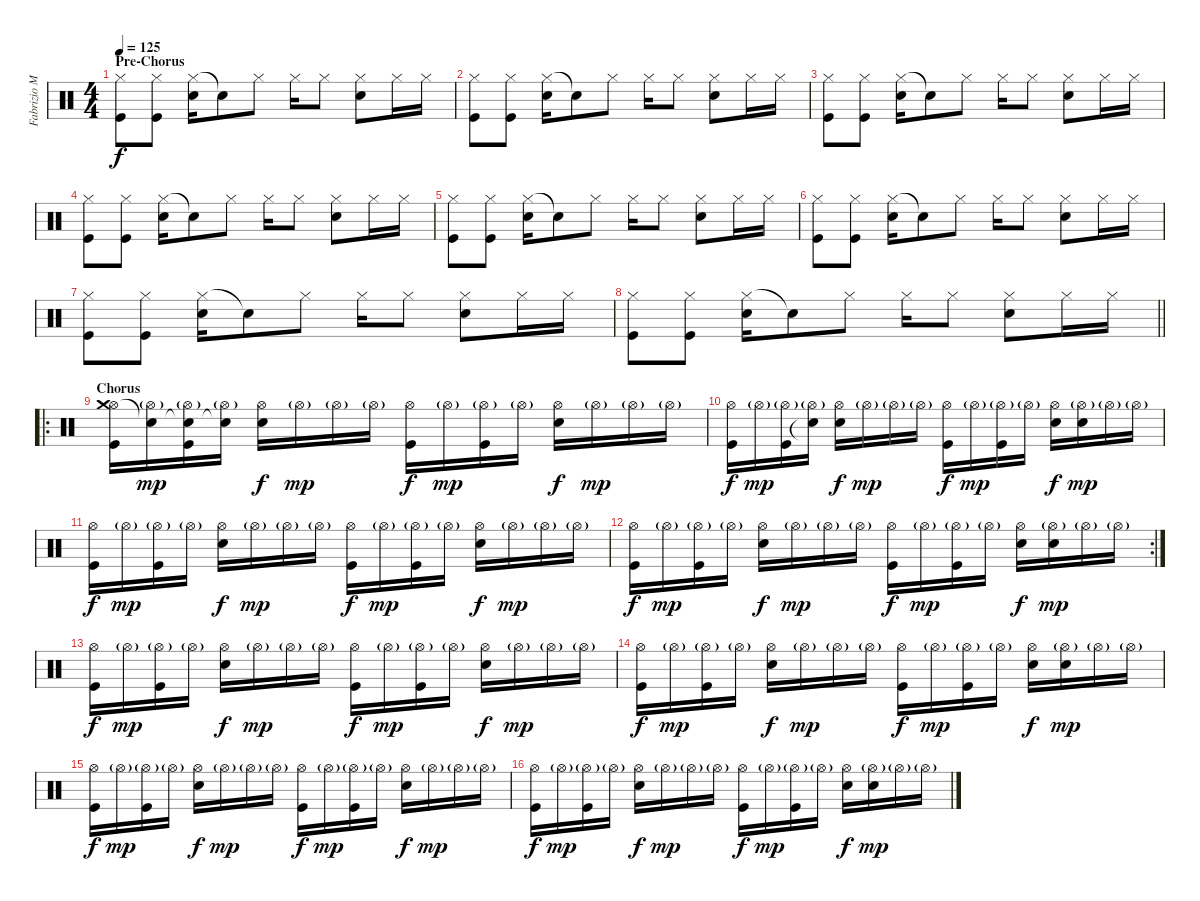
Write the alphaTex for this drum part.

\track ("Fabrizio Moretti" "Fabrizio M") {instrument percussion}
\staff {score}
\articulation defaults
\ts (4 4)
\section ("" "Pre-Chorus")
\tempo 125
\clef neutral
\ks c
("Hi-Hat (closed)" "Kick (hit)").8{dy f} ("Hi-Hat (closed)" "Kick (hit)").8 ("Hi-Hat (closed)" "Electric Snare (hit)").16 "Snare (hit)"{t}.8 "Hi-Hat (closed)".8 "Hi-Hat (closed)".16 "Hi-Hat (closed)".8 ("Hi-Hat (closed)" "Electric Snare (hit)").8 "Hi-Hat (closed)".16 "Hi-Hat (closed)".16 |
("Hi-Hat (closed)" "Kick (hit)").8 ("Hi-Hat (closed)" "Kick (hit)").8 ("Hi-Hat (closed)" "Electric Snare (hit)").16 "Snare (hit)"{t}.8 "Hi-Hat (closed)".8 "Hi-Hat (closed)".16 "Hi-Hat (closed)".8 ("Hi-Hat (closed)" "Electric Snare (hit)").8 "Hi-Hat (closed)".16 "Hi-Hat (closed)".16 |
("Hi-Hat (closed)" "Kick (hit)").8 ("Hi-Hat (closed)" "Kick (hit)").8 ("Hi-Hat (closed)" "Electric Snare (hit)").16 "Snare (hit)"{t}.8 "Hi-Hat (closed)".8 "Hi-Hat (closed)".16 "Hi-Hat (closed)".8 ("Hi-Hat (closed)" "Electric Snare (hit)").8 "Hi-Hat (closed)".16 "Hi-Hat (closed)".16 |
("Hi-Hat (closed)" "Kick (hit)").8 ("Hi-Hat (closed)" "Kick (hit)").8 ("Hi-Hat (closed)" "Electric Snare (hit)").16 "Snare (hit)"{t}.8 "Hi-Hat (closed)".8 "Hi-Hat (closed)".16 "Hi-Hat (closed)".8 ("Hi-Hat (closed)" "Electric Snare (hit)").8 "Hi-Hat (closed)".16 "Hi-Hat (closed)".16 |
("Hi-Hat (closed)" "Kick (hit)").8 ("Hi-Hat (closed)" "Kick (hit)").8 ("Hi-Hat (closed)" "Electric Snare (hit)").16 "Snare (hit)"{t}.8 "Hi-Hat (closed)".8 "Hi-Hat (closed)".16 "Hi-Hat (closed)".8 ("Hi-Hat (closed)" "Electric Snare (hit)").8 "Hi-Hat (closed)".16 "Hi-Hat (closed)".16 |
("Hi-Hat (closed)" "Kick (hit)").8 ("Hi-Hat (closed)" "Kick (hit)").8 ("Hi-Hat (closed)" "Electric Snare (hit)").16 "Snare (hit)"{t}.8 "Hi-Hat (closed)".8 "Hi-Hat (closed)".16 "Hi-Hat (closed)".8 ("Hi-Hat (closed)" "Electric Snare (hit)").8 "Hi-Hat (closed)".16 "Hi-Hat (closed)".16 |
("Hi-Hat (closed)" "Kick (hit)").8 ("Hi-Hat (closed)" "Kick (hit)").8 ("Hi-Hat (closed)" "Electric Snare (hit)").16 "Snare (hit)"{t}.8 "Hi-Hat (closed)".8 "Hi-Hat (closed)".16 "Hi-Hat (closed)".8 ("Hi-Hat (closed)" "Electric Snare (hit)").8 "Hi-Hat (closed)".16 "Hi-Hat (closed)".16 |
\barLineRight lightlight
("Hi-Hat (closed)" "Kick (hit)").8 ("Hi-Hat (closed)" "Kick (hit)").8 ("Hi-Hat (closed)" "Electric Snare (hit)").16 "Snare (hit)"{t}.8 "Hi-Hat (closed)".8 "Hi-Hat (closed)".16 "Hi-Hat (closed)".8 ("Hi-Hat (closed)" "Electric Snare (hit)").8 "Hi-Hat (closed)".16 "Hi-Hat (closed)".16 |
\ro
\section ("" "Chorus")
("Hi-Hat (open)" "Crash medium (hit)" "Kick (hit)").16 ("Hi-Hat (open)"{g} "Snare (hit)"{t}).16{dy mp} ("Hi-Hat (open)"{g} "Snare (hit)"{t} "Kick (hit)").16 ("Hi-Hat (open)"{g} "Snare (hit)"{t}).16 ("Hi-Hat (open)" "Electric Snare (hit)").16{dy f} "Hi-Hat (open)"{g}.16{dy mp} "Hi-Hat (open)"{g}.16 "Hi-Hat (open)"{g}.16 ("Hi-Hat (open)" "Kick (hit)").16{dy f} "Hi-Hat (open)"{g}.16{dy mp} ("Hi-Hat (open)"{g} "Kick (hit)").16 "Hi-Hat (open)"{g}.16 ("Hi-Hat (open)" "Electric Snare (hit)").16{dy f} "Hi-Hat (open)"{g}.16{dy mp} "Hi-Hat (open)"{g}.16 "Hi-Hat (open)"{g}.16 |
("Hi-Hat (open)" "Kick (hit)").16{dy f} "Hi-Hat (open)"{g}.16{dy mp} ("Hi-Hat (open)"{g} "Kick (hit)").16 ("Hi-Hat (open)"{g} "Snare (hit)"{t}).16 ("Hi-Hat (open)" "Electric Snare (hit)").16{dy f} "Hi-Hat (open)"{g}.16{dy mp} "Hi-Hat (open)"{g}.16 "Hi-Hat (open)"{g}.16 ("Hi-Hat (open)" "Kick (hit)").16{dy f} "Hi-Hat (open)"{g}.16{dy mp} ("Hi-Hat (open)"{g} "Kick (hit)").16 "Hi-Hat (open)"{g}.16 ("Hi-Hat (open)" "Electric Snare (hit)").16{dy f} ("Hi-Hat (open)"{g} "Electric Snare (hit)").16{dy mp} "Hi-Hat (open)"{g}.16 "Hi-Hat (open)"{g}.16 |
("Hi-Hat (open)" "Kick (hit)").16{dy f} "Hi-Hat (open)"{g}.16{dy mp} ("Hi-Hat (open)"{g} "Kick (hit)").16 "Hi-Hat (open)"{g}.16 ("Hi-Hat (open)" "Electric Snare (hit)").16{dy f} "Hi-Hat (open)"{g}.16{dy mp} "Hi-Hat (open)"{g}.16 "Hi-Hat (open)"{g}.16 ("Hi-Hat (open)" "Kick (hit)").16{dy f} "Hi-Hat (open)"{g}.16{dy mp} ("Hi-Hat (open)"{g} "Kick (hit)").16 "Hi-Hat (open)"{g}.16 ("Hi-Hat (open)" "Electric Snare (hit)").16{dy f} "Hi-Hat (open)"{g}.16{dy mp} "Hi-Hat (open)"{g}.16 "Hi-Hat (open)"{g}.16 |
\rc 2
("Hi-Hat (open)" "Kick (hit)").16{dy f} "Hi-Hat (open)"{g}.16{dy mp} ("Hi-Hat (open)"{g} "Kick (hit)").16 "Hi-Hat (open)"{g}.16 ("Hi-Hat (open)" "Electric Snare (hit)").16{dy f} "Hi-Hat (open)"{g}.16{dy mp} "Hi-Hat (open)"{g}.16 "Hi-Hat (open)"{g}.16 ("Hi-Hat (open)" "Kick (hit)").16{dy f} "Hi-Hat (open)"{g}.16{dy mp} ("Hi-Hat (open)"{g} "Kick (hit)").16 "Hi-Hat (open)"{g}.16 ("Hi-Hat (open)" "Electric Snare (hit)").16{dy f} ("Hi-Hat (open)"{g} "Electric Snare (hit)").16{dy mp} "Hi-Hat (open)"{g}.16 "Hi-Hat (open)"{g}.16 |
("Hi-Hat (open)" "Kick (hit)").16{dy f} "Hi-Hat (open)"{g}.16{dy mp} ("Hi-Hat (open)"{g} "Kick (hit)").16 "Hi-Hat (open)"{g}.16 ("Hi-Hat (open)" "Electric Snare (hit)").16{dy f} "Hi-Hat (open)"{g}.16{dy mp} "Hi-Hat (open)"{g}.16 "Hi-Hat (open)"{g}.16 ("Hi-Hat (open)" "Kick (hit)").16{dy f} "Hi-Hat (open)"{g}.16{dy mp} ("Hi-Hat (open)"{g} "Kick (hit)").16 "Hi-Hat (open)"{g}.16 ("Hi-Hat (open)" "Electric Snare (hit)").16{dy f} "Hi-Hat (open)"{g}.16{dy mp} "Hi-Hat (open)"{g}.16 "Hi-Hat (open)"{g}.16 |
("Hi-Hat (open)" "Kick (hit)").16{dy f} "Hi-Hat (open)"{g}.16{dy mp} ("Hi-Hat (open)"{g} "Kick (hit)").16 "Hi-Hat (open)"{g}.16 ("Hi-Hat (open)" "Electric Snare (hit)").16{dy f} "Hi-Hat (open)"{g}.16{dy mp} "Hi-Hat (open)"{g}.16 "Hi-Hat (open)"{g}.16 ("Hi-Hat (open)" "Kick (hit)").16{dy f} "Hi-Hat (open)"{g}.16{dy mp} ("Hi-Hat (open)"{g} "Kick (hit)").16 "Hi-Hat (open)"{g}.16 ("Hi-Hat (open)" "Electric Snare (hit)").16{dy f} ("Hi-Hat (open)"{g} "Electric Snare (hit)").16{dy mp} "Hi-Hat (open)"{g}.16 "Hi-Hat (open)"{g}.16 |
("Hi-Hat (open)" "Kick (hit)").16{dy f} "Hi-Hat (open)"{g}.16{dy mp} ("Hi-Hat (open)"{g} "Kick (hit)").16 "Hi-Hat (open)"{g}.16 ("Hi-Hat (open)" "Electric Snare (hit)").16{dy f} "Hi-Hat (open)"{g}.16{dy mp} "Hi-Hat (open)"{g}.16 "Hi-Hat (open)"{g}.16 ("Hi-Hat (open)" "Kick (hit)").16{dy f} "Hi-Hat (open)"{g}.16{dy mp} ("Hi-Hat (open)"{g} "Kick (hit)").16 "Hi-Hat (open)"{g}.16 ("Hi-Hat (open)" "Electric Snare (hit)").16{dy f} "Hi-Hat (open)"{g}.16{dy mp} "Hi-Hat (open)"{g}.16 "Hi-Hat (open)"{g}.16 |
("Hi-Hat (open)" "Kick (hit)").16{dy f} "Hi-Hat (open)"{g}.16{dy mp} ("Hi-Hat (open)"{g} "Kick (hit)").16 "Hi-Hat (open)"{g}.16 ("Hi-Hat (open)" "Electric Snare (hit)").16{dy f} "Hi-Hat (open)"{g}.16{dy mp} "Hi-Hat (open)"{g}.16 "Hi-Hat (open)"{g}.16 ("Hi-Hat (open)" "Kick (hit)").16{dy f} "Hi-Hat (open)"{g}.16{dy mp} ("Hi-Hat (open)"{g} "Kick (hit)").16 "Hi-Hat (open)"{g}.16 ("Hi-Hat (open)" "Electric Snare (hit)").16{dy f} ("Hi-Hat (open)"{g} "Electric Snare (hit)").16{dy mp} "Hi-Hat (open)"{g}.16 "Hi-Hat (open)"{g}.16
